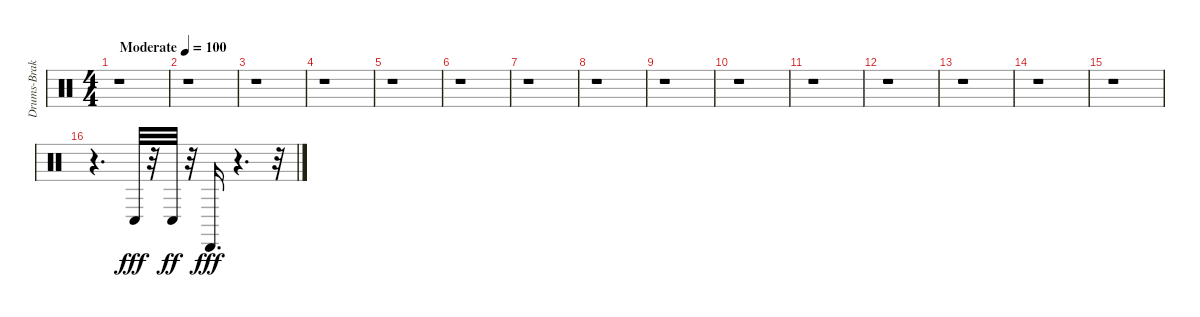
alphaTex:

\track ("Drums-Brakes" "Drums-Brak") {instrument percussion}
\staff {score}
\articulation defaults
\ts (4 4)
\tempo (100 "Moderate")
\clef neutral
\ks c
r.1{dy fff} |
r.1 |
r.1 |
r.1 |
r.1 |
r.1 |
r.1 |
r.1 |
r.1 |
r.1 |
r.1 |
r.1 |
r.1 |
r.1 |
r.1 |
r.4{d} "Conga low (hit)".32 r.32 "Conga low (hit)".32{dy ff} r.32 "Cabasa (hit)".16{d dy fff} r.4{d} r.32
